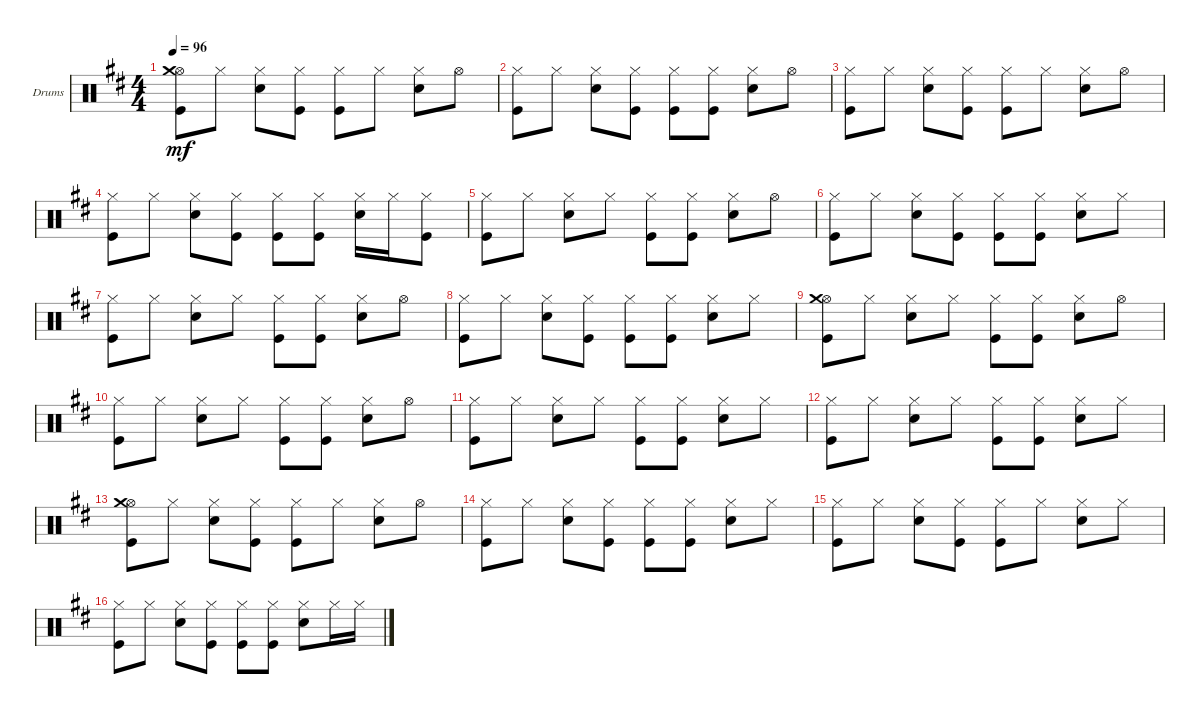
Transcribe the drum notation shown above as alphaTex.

\defaultSystemsLayout 4
\bracketExtendMode groupsimilarinstruments
\firstSystemTrackNameOrientation horizontal
\otherSystemsTrackNameOrientation horizontal
\track ("Drumkit" "Drums") {instrument percussion}
\staff {score}
\articulation defaults
\ts (4 4)
\tempo 96
\clef neutral
\ks d
("Hi-Hat (open)" "Crash medium (hit)" "Kick (hit)").8{dy mf} "Hi-Hat (closed)".8 ("Hi-Hat (closed)" "Snare (hit) 2").8 ("Kick (hit)" "Hi-Hat (closed)").8 ("Hi-Hat (closed)" "Kick (hit)").8 "Hi-Hat (closed)".8 ("Hi-Hat (closed)" "Snare (hit) 2").8 "Hi-Hat (open)".8 |
("Kick (hit)" "Hi-Hat (closed)").8 "Hi-Hat (closed)".8 ("Hi-Hat (closed)" "Snare (hit) 2").8 ("Hi-Hat (closed)" "Kick (hit)").8 ("Hi-Hat (closed)" "Kick (hit)").8 ("Hi-Hat (closed)" "Kick (hit)").8 ("Hi-Hat (closed)" "Snare (hit) 2").8 "Hi-Hat (open)".8 |
("Hi-Hat (closed)" "Kick (hit)").8 "Hi-Hat (closed)".8 ("Hi-Hat (closed)" "Snare (hit) 2").8 ("Hi-Hat (closed)" "Kick (hit)").8 ("Hi-Hat (closed)" "Kick (hit)").8 "Hi-Hat (closed)".8 ("Hi-Hat (closed)" "Snare (hit) 2").8 "Hi-Hat (open)".8 |
("Hi-Hat (closed)" "Kick (hit)").8 "Hi-Hat (closed)".8 ("Hi-Hat (closed)" "Snare (hit) 2").8 ("Hi-Hat (closed)" "Kick (hit)").8 ("Hi-Hat (closed)" "Kick (hit)").8 ("Hi-Hat (closed)" "Kick (hit)").8 ("Hi-Hat (closed)" "Snare (hit) 2").16 "Hi-Hat (closed)".16 ("Hi-Hat (closed)" "Kick (hit)").8 |
("Hi-Hat (closed)" "Kick (hit)").8 "Hi-Hat (closed)".8 ("Hi-Hat (closed)" "Snare (hit) 2").8 "Hi-Hat (closed)".8 ("Hi-Hat (closed)" "Kick (hit)").8 ("Hi-Hat (closed)" "Kick (hit)").8 ("Hi-Hat (closed)" "Snare (hit) 2").8 "Hi-Hat (open)".8 |
("Hi-Hat (closed)" "Kick (hit)").8 "Hi-Hat (closed)".8 ("Hi-Hat (closed)" "Snare (hit) 2").8 ("Hi-Hat (closed)" "Kick (hit)").8 ("Hi-Hat (closed)" "Kick (hit)").8 ("Hi-Hat (closed)" "Kick (hit)").8 ("Hi-Hat (closed)" "Snare (hit) 2").8 "Hi-Hat (closed)".8 |
("Hi-Hat (closed)" "Kick (hit)").8 "Hi-Hat (closed)".8 ("Hi-Hat (closed)" "Snare (hit) 2").8 "Hi-Hat (closed)".8 ("Hi-Hat (closed)" "Kick (hit)").8 ("Hi-Hat (closed)" "Kick (hit)").8 ("Hi-Hat (closed)" "Snare (hit) 2").8 "Hi-Hat (open)".8 |
("Hi-Hat (closed)" "Kick (hit)").8 "Hi-Hat (closed)".8 ("Hi-Hat (closed)" "Snare (hit) 2").8 ("Hi-Hat (closed)" "Kick (hit)").8 ("Hi-Hat (closed)" "Kick (hit)").8 ("Hi-Hat (closed)" "Kick (hit)").8 ("Hi-Hat (closed)" "Snare (hit) 2").8 "Hi-Hat (closed)".8 |
("Hi-Hat (open)" "Crash medium (hit)" "Kick (hit)").8 "Hi-Hat (closed)".8 ("Hi-Hat (closed)" "Snare (hit) 2").8 "Hi-Hat (closed)".8 ("Hi-Hat (closed)" "Kick (hit)").8 ("Hi-Hat (closed)" "Kick (hit)").8 ("Hi-Hat (closed)" "Snare (hit) 2").8 "Hi-Hat (open)".8 |
("Hi-Hat (closed)" "Kick (hit)").8 "Hi-Hat (closed)".8 ("Hi-Hat (closed)" "Snare (hit) 2").8 "Hi-Hat (closed)".8 ("Hi-Hat (closed)" "Kick (hit)").8 ("Hi-Hat (closed)" "Kick (hit)").8 ("Hi-Hat (closed)" "Snare (hit) 2").8 "Hi-Hat (open)".8 |
("Hi-Hat (closed)" "Kick (hit)").8 "Hi-Hat (closed)".8 ("Hi-Hat (closed)" "Snare (hit) 2").8 "Hi-Hat (closed)".8 ("Hi-Hat (closed)" "Kick (hit)").8 ("Hi-Hat (closed)" "Kick (hit)").8 ("Hi-Hat (closed)" "Snare (hit) 2").8 "Hi-Hat (closed)".8 |
("Hi-Hat (closed)" "Kick (hit)").8 "Hi-Hat (closed)".8 ("Hi-Hat (closed)" "Snare (hit) 2").8 "Hi-Hat (closed)".8 ("Hi-Hat (closed)" "Kick (hit)").8 ("Hi-Hat (closed)" "Kick (hit)").8 ("Hi-Hat (closed)" "Snare (hit) 2").8 "Hi-Hat (closed)".8 |
("Hi-Hat (open)" "Crash medium (hit)" "Kick (hit)").8 "Hi-Hat (closed)".8 ("Hi-Hat (closed)" "Snare (hit) 2").8 ("Hi-Hat (closed)" "Kick (hit)").8 ("Hi-Hat (closed)" "Kick (hit)").8 "Hi-Hat (closed)".8 ("Hi-Hat (closed)" "Snare (hit) 2").8 "Hi-Hat (open)".8 |
("Hi-Hat (closed)" "Kick (hit)").8 "Hi-Hat (closed)".8 ("Hi-Hat (closed)" "Snare (hit) 2").8 ("Hi-Hat (closed)" "Kick (hit)").8 ("Hi-Hat (closed)" "Kick (hit)").8 ("Hi-Hat (closed)" "Kick (hit)").8 ("Hi-Hat (closed)" "Snare (hit) 2").8 "Hi-Hat (closed)".8 |
("Hi-Hat (closed)" "Kick (hit)").8 "Hi-Hat (closed)".8 ("Hi-Hat (closed)" "Snare (hit) 2").8 ("Hi-Hat (closed)" "Kick (hit)").8 ("Hi-Hat (closed)" "Kick (hit)").8 "Hi-Hat (closed)".8 ("Hi-Hat (closed)" "Snare (hit) 2").8 "Hi-Hat (closed)".8 |
("Kick (hit)" "Hi-Hat (closed)").8 "Hi-Hat (closed)".8 ("Hi-Hat (closed)" "Snare (hit) 2").8 ("Hi-Hat (closed)" "Kick (hit)").8 ("Kick (hit)" "Hi-Hat (closed)").8 ("Kick (hit)" "Hi-Hat (closed)").8 ("Hi-Hat (closed)" "Snare (hit) 2").8 "Hi-Hat (closed)".16 "Hi-Hat (closed)".16
